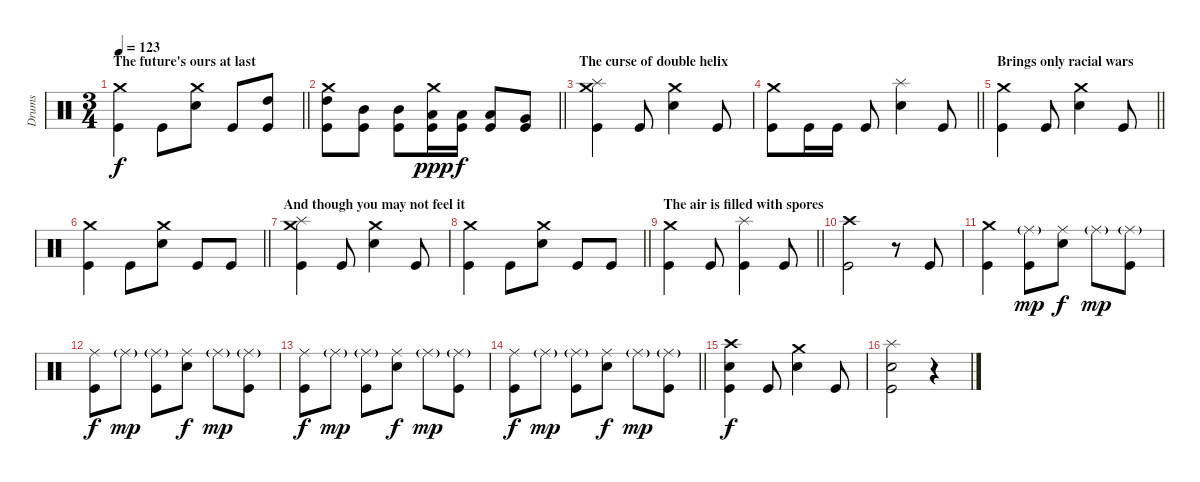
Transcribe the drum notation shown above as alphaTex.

\track ("Drums" "Drums") {instrument percussion}
\staff {score}
\articulation defaults
\ts (3 4)
\section ("" "The future's ours at last ")
\tempo 123
\clef neutral
\barLineRight lightlight
\ks c
("Crash medium (hit)" "Kick (hit)").4{dy f} "Kick (hit)".8 ("Crash medium (hit)" "Snare (hit) 2").8 "Kick (hit)".8 ("High Tom (hit)" "Kick (hit)").8 |
\section ("" "")
\barLineRight lightlight
("Crash medium (hit)" "High Tom (hit)" "Kick (hit)").8 ("Mid Tom (hit)" "Kick (hit)").8 ("Mid Tom (hit)" "Kick (hit)").8 ("Crash medium (hit)" "Low Tom (hit)" "Kick (hit)").16{dy ppp} ("Low Tom (hit)" "Kick (hit)").16{dy f} ("Low Tom (hit)" "Kick (hit)").8 ("Very Low Tom (hit)" "Kick (hit)").8 |
\section ("" "The curse of double helix ")
("Crash medium (hit)" "Splash (hit)" "Kick (hit)").4 "Kick (hit)".8 ("Crash medium (hit)" "Snare (hit) 2").4 "Kick (hit)".8 |
\barLineRight lightlight
("Crash medium (hit)" "Kick (hit)").8 "Kick (hit)".16 "Kick (hit)".16 "Kick (hit)".8 ("Splash (hit)" "Snare (hit) 2").4 "Kick (hit)".8 |
\section ("" "Brings only racial wars ")
\barLineRight lightlight
("Crash medium (hit)" "Kick (hit)").4 "Kick (hit)".8 ("Crash medium (hit)" "Snare (hit) 2").4 "Kick (hit)".8 |
\barLineRight lightlight
("Crash medium (hit)" "Kick (hit)").4 "Kick (hit)".8 ("Crash medium (hit)" "Snare (hit) 2").8 "Kick (hit)".8 "Kick (hit)".8 |
\section ("" "And though you may not feel it ")
("Crash medium (hit)" "Splash (hit)" "Kick (hit)").4 "Kick (hit)".8 ("Crash medium (hit)" "Snare (hit) 2").4 "Kick (hit)".8 |
\barLineRight lightlight
("Crash medium (hit)" "Kick (hit)").4 "Kick (hit)".8 ("Crash medium (hit)" "Snare (hit) 2").8 "Kick (hit)".8 "Kick (hit)".8 |
\section ("" "The air is filled with spores")
\barLineRight lightlight
("Crash medium (hit)" "Kick (hit)").4 "Kick (hit)".8 ("Splash (hit)" "Kick (hit)").4 "Kick (hit)".8 |
("Crash high (hit)" "Kick (hit)").2 r.8 "Kick (hit)".8 |
("Crash medium (hit)" "Kick (hit)").4 ("Ride (middle)"{g} "Kick (hit)").8{dy mp} ("Ride (middle)" "Snare (hit) 2").8{dy f} "Ride (middle)"{g}.8{dy mp} ("Ride (middle)"{g} "Kick (hit)").8 |
("Ride (middle)" "Kick (hit)").8{dy f} "Ride (middle)"{g}.8{dy mp} ("Ride (middle)"{g} "Kick (hit)").8 ("Ride (middle)" "Snare (hit) 2").8{dy f} "Ride (middle)"{g}.8{dy mp} ("Ride (middle)"{g} "Kick (hit)").8 |
("Ride (middle)" "Kick (hit)").8{dy f} "Ride (middle)"{g}.8{dy mp} ("Ride (middle)"{g} "Kick (hit)").8 ("Ride (middle)" "Snare (hit) 2").8{dy f} "Ride (middle)"{g}.8{dy mp} ("Ride (middle)"{g} "Kick (hit)").8 |
\barLineRight lightlight
("Ride (middle)" "Kick (hit)").8{dy f} "Ride (middle)"{g}.8{dy mp} ("Ride (middle)"{g} "Kick (hit)").8 ("Ride (middle)" "Snare (hit) 2").8{dy f} "Ride (middle)"{g}.8{dy mp} ("Ride (middle)"{g} "Kick (hit)").8 |
("Crash high (hit)" "Snare (hit) 2" "Kick (hit)").4{dy f} "Kick (hit)".8 ("Crash medium (hit)" "Snare (hit) 2").4 "Kick (hit)".8 |
("Splash (hit)" "Snare (hit) 2" "Kick (hit)").2 r.4
